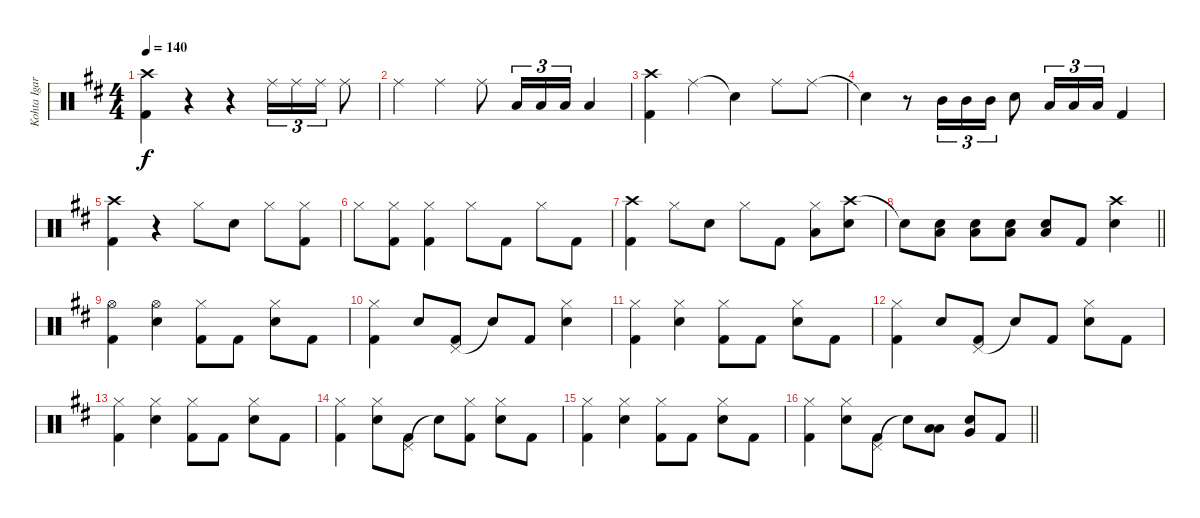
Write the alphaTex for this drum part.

\track ("Kohta Igarashi" "Kohta Igar") {instrument percussion}
\staff {score}
\articulation defaults
\ts (4 4)
\tempo 140
\clef neutral
\ks d
("Crash high (hit)" "Kick (hit) 2").4{dy f} r.4 r.4 "Ride (middle)".16{tu (3 2)} "Ride (middle)".16{tu (3 2)} "Ride (middle)".16{tu (3 2)} "Ride (middle)".8 |
"Ride (middle)".4 "Ride (middle)".4 "Ride (middle)".8 "Low Tom (hit)".16{tu (3 2)} "Low Tom (hit)".16{tu (3 2)} "Low Tom (hit)".16{tu (3 2)} "Low Tom (hit)".4 |
("Crash high (hit)" "Kick (hit) 2").4 "Ride (middle)".4 "Snare (hit)"{t}.4 "Ride (middle)".8 "Ride (middle)".8 |
"Snare (hit)"{t}.4 r.8 "Mid Tom (hit)".16{tu (3 2)} "Mid Tom (hit)".16{tu (3 2)} "Mid Tom (hit)".16{tu (3 2)} "Electric Snare (hit)".8 "Low Tom (hit)".16{tu (3 2)} "Low Tom (hit)".16{tu (3 2)} "Low Tom (hit)".16{tu (3 2)} "Kick (hit) 2".4 |
("Crash high (hit)" "Kick (hit) 2").4 r.4 "Hi-Hat (closed)".8 "Electric Snare (hit)".8 "Hi-Hat (closed)".8 ("Hi-Hat (closed)" "Kick (hit) 2").8 |
"Hi-Hat (closed)".8 ("Hi-Hat (closed)" "Kick (hit) 2").8 ("Hi-Hat (closed)" "Kick (hit) 2").4 "Hi-Hat (closed)".8 "Kick (hit) 2".8 "Hi-Hat (closed)".8 "Kick (hit) 2".8 |
("Crash high (hit)" "Kick (hit) 2").4 "Hi-Hat (closed)".8 "Electric Snare (hit)".8 "Hi-Hat (closed)".8 "Kick (hit) 2".8 ("Hi-Hat (closed)" "Low Floor Tom (hit)").8 ("Crash high (hit)" "Electric Snare (hit)").8 |
\barLineRight lightlight "Snare (hit)"{t}.8
("Low Floor Tom (hit)" "Electric Snare (hit)").8 ("Low Floor Tom (hit)" "Electric Snare (hit)").8 ("Low Floor Tom (hit)" "Electric Snare (hit)").8 ("Low Floor Tom (hit)" "Electric Snare (hit)").8 "Kick (hit) 2".8 ("Crash high (hit)" "Electric Snare (hit)").4 |
("Hi-Hat (open)" "Kick (hit) 2").4 ("Hi-Hat (open)" "Electric Snare (hit)").4 ("Hi-Hat (closed)" "Kick (hit) 2").8 "Kick (hit) 2".8 ("Hi-Hat (closed)" "Electric Snare (hit)").8 "Kick (hit) 2".8 |
("Hi-Hat (closed)" "Kick (hit) 2").4 "Electric Snare (hit)".8 ("Pedal Hi-Hat (hit)" "Kick (hit) 2").8 "Snare (hit)"{t}.8 "Kick (hit) 2".8 ("Hi-Hat (closed)" "Electric Snare (hit)").4 |
("Hi-Hat (closed)" "Kick (hit) 2").4 ("Hi-Hat (closed)" "Electric Snare (hit)").4 ("Hi-Hat (closed)" "Kick (hit) 2").8 "Kick (hit) 2".8 ("Hi-Hat (closed)" "Electric Snare (hit)").8 "Kick (hit) 2".8 |
("Hi-Hat (closed)" "Kick (hit) 2").4 "Electric Snare (hit)".8 ("Pedal Hi-Hat (hit)" "Kick (hit) 2").8 "Snare (hit)"{t}.8 "Kick (hit) 2".8 ("Hi-Hat (closed)" "Electric Snare (hit)").8 "Kick (hit) 2".8 |
("Hi-Hat (closed)" "Kick (hit) 2").4 ("Hi-Hat (closed)" "Electric Snare (hit)").4 ("Hi-Hat (closed)" "Kick (hit) 2").8 "Kick (hit) 2".8 ("Hi-Hat (closed)" "Electric Snare (hit)").8 "Kick (hit) 2".8 |
("Hi-Hat (closed)" "Kick (hit) 2").4 ("Hi-Hat (closed)" "Electric Snare (hit)").8 ("Pedal Hi-Hat (hit)" "Kick (hit) 2").8 "Snare (hit)"{t}.8 ("Hi-Hat (closed)" "Kick (hit) 2").8 ("Hi-Hat (closed)" "Electric Snare (hit)").8 "Kick (hit) 2".8 |
("Hi-Hat (closed)" "Kick (hit) 2").4 ("Hi-Hat (closed)" "Electric Snare (hit)").4 ("Hi-Hat (closed)" "Kick (hit) 2").8 "Kick (hit) 2".8 ("Hi-Hat (closed)" "Electric Snare (hit)").8 "Kick (hit) 2".8 |
\barLineRight lightlight
("Hi-Hat (closed)" "Kick (hit) 2").4 ("Hi-Hat (closed)" "Electric Snare (hit)").8 ("Pedal Hi-Hat (hit)" "Kick (hit) 2").8 "Snare (hit)"{t}.8 ("Low Tom (hit)" "Low Tom (hit)").8 ("Very Low Tom (hit)" "Electric Snare (hit)").8 "Kick (hit) 2".8
